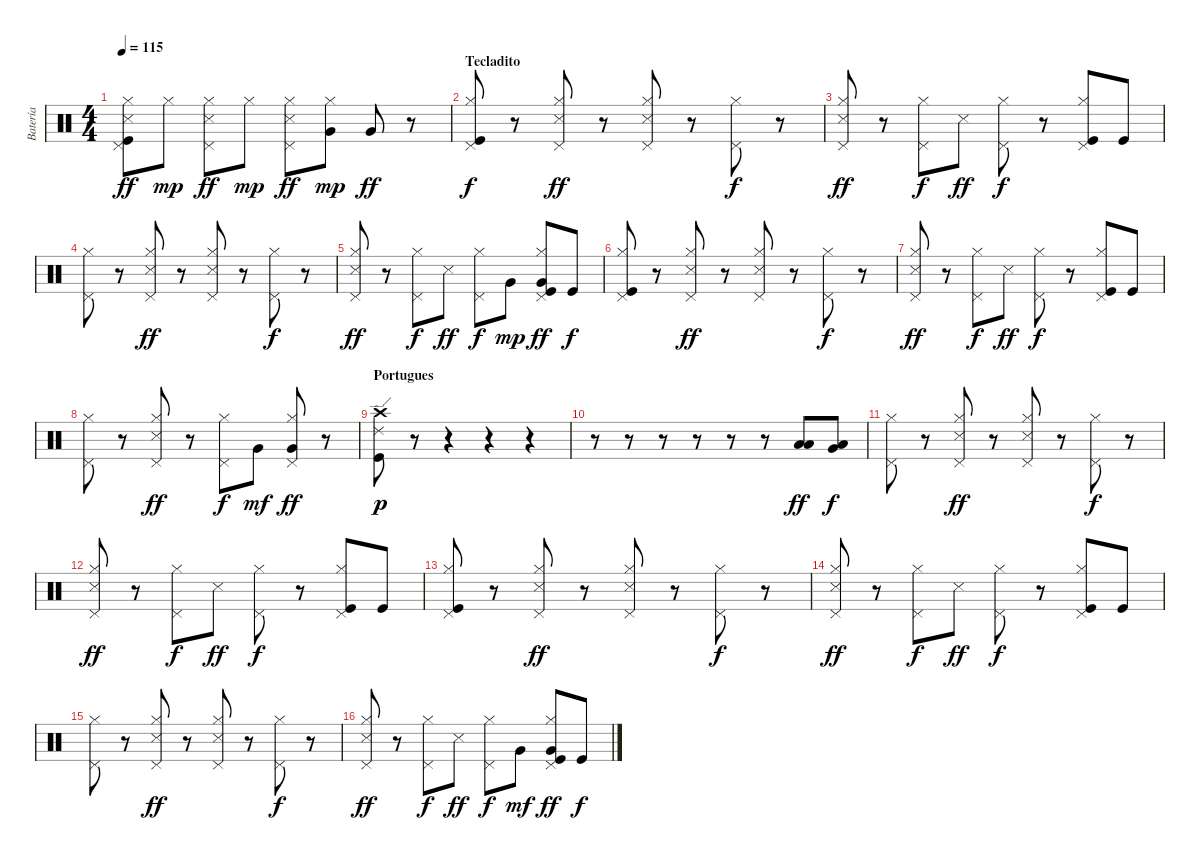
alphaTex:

\track ("Batería" "Batería") {instrument percussion}
\staff {score}
\articulation defaults
\ts (4 4)
\tempo 115
\clef neutral
\ks c
("Pedal Hi-Hat (hit)" "Hi-Hat (closed)" "Snare (side stick) 3" "Kick (hit)").8{dy ff} "Hi-Hat (closed)".8{dy mp} ("Pedal Hi-Hat (hit)" "Hi-Hat (closed)" "Snare (side stick) 3").8{dy ff} "Hi-Hat (closed)".8{dy mp} ("Pedal Hi-Hat (hit)" "Hi-Hat (closed)" "Snare (side stick) 3").8{dy ff} ("Hi-Hat (closed)" "Very Low Tom (hit)").8{dy mp} "Very Low Tom (hit)".8{dy ff} r.8 |
\section ("" "Tecladito")
("Hi-Hat (closed)" "Pedal Hi-Hat (hit)" "Kick (hit)").8{dy f} r.8 ("Pedal Hi-Hat (hit)" "Hi-Hat (closed)" "Snare (side stick) 3").8{dy ff} r.8 ("Pedal Hi-Hat (hit)" "Hi-Hat (closed)" "Snare (side stick) 3").8 r.8 ("Pedal Hi-Hat (hit)" "Hi-Hat (closed)").8{dy f} r.8 |
("Pedal Hi-Hat (hit)" "Hi-Hat (closed)" "Snare (side stick) 3").8{dy ff} r.8 ("Pedal Hi-Hat (hit)" "Hi-Hat (closed)").8{dy f} "Snare (side stick) 3".8{dy ff} ("Pedal Hi-Hat (hit)" "Hi-Hat (closed)").8{dy f} r.8 ("Pedal Hi-Hat (hit)" "Hi-Hat (closed)" "Kick (hit)").8 "Kick (hit)".8 |
("Pedal Hi-Hat (hit)" "Hi-Hat (closed)").8 r.8 ("Pedal Hi-Hat (hit)" "Hi-Hat (closed)" "Snare (side stick) 3").8{dy ff} r.8 ("Pedal Hi-Hat (hit)" "Hi-Hat (closed)" "Snare (side stick) 3").8 r.8 ("Pedal Hi-Hat (hit)" "Hi-Hat (closed)").8{dy f} r.8 |
("Pedal Hi-Hat (hit)" "Hi-Hat (closed)" "Snare (side stick) 3").8{dy ff} r.8 ("Pedal Hi-Hat (hit)" "Hi-Hat (closed)").8{dy f} "Snare (side stick) 3".8{dy ff} ("Pedal Hi-Hat (hit)" "Hi-Hat (closed)").8{dy f} "Very Low Tom (hit)".8{dy mp} ("Pedal Hi-Hat (hit)" "Hi-Hat (closed)" "Very Low Tom (hit)" "Kick (hit)").8{dy ff} "Kick (hit)".8{dy f} |
("Pedal Hi-Hat (hit)" "Hi-Hat (closed)" "Kick (hit)").8 r.8 ("Pedal Hi-Hat (hit)" "Hi-Hat (closed)" "Snare (side stick) 3").8{dy ff} r.8 ("Pedal Hi-Hat (hit)" "Hi-Hat (closed)" "Snare (side stick) 3").8 r.8 ("Pedal Hi-Hat (hit)" "Hi-Hat (closed)").8{dy f} r.8 |
("Pedal Hi-Hat (hit)" "Hi-Hat (closed)" "Snare (side stick) 3").8{dy ff} r.8 ("Pedal Hi-Hat (hit)" "Hi-Hat (closed)").8{dy f} "Snare (side stick) 3".8{dy ff} ("Pedal Hi-Hat (hit)" "Hi-Hat (closed)").8{dy f} r.8 ("Pedal Hi-Hat (hit)" "Hi-Hat (closed)" "Kick (hit)").8 "Kick (hit)".8 |
("Pedal Hi-Hat (hit)" "Hi-Hat (closed)").8 r.8 ("Pedal Hi-Hat (hit)" "Hi-Hat (closed)" "Snare (side stick) 3").8{dy ff} r.8 ("Pedal Hi-Hat (hit)" "Hi-Hat (closed)").8{dy f} "Very Low Tom (hit)".8{dy mf} ("Pedal Hi-Hat (hit)" "Hi-Hat (closed)" "Very Low Tom (hit)").8{dy ff} r.8 |
\section ("" "Portugues")
("Ride (edge) 2" "Crash high (hit)" "Kick (hit)").8{dy p} r.8 r.4 r.4 r.4 |
r.8 r.8 r.8 r.8 r.8 r.8 ("Low Tom (hit)" "Low Floor Tom (hit)").8{dy ff} ("Very Low Tom (hit)" "Low Floor Tom (hit)").8{dy f} |
("Pedal Hi-Hat (hit)" "Hi-Hat (closed)").8 r.8 ("Pedal Hi-Hat (hit)" "Hi-Hat (closed)" "Snare (side stick) 3").8{dy ff} r.8 ("Pedal Hi-Hat (hit)" "Hi-Hat (closed)" "Snare (side stick) 3").8 r.8 ("Pedal Hi-Hat (hit)" "Hi-Hat (closed)").8{dy f} r.8 |
("Pedal Hi-Hat (hit)" "Hi-Hat (closed)" "Snare (side stick) 3").8{dy ff} r.8 ("Pedal Hi-Hat (hit)" "Hi-Hat (closed)").8{dy f} "Snare (side stick) 3".8{dy ff} ("Pedal Hi-Hat (hit)" "Hi-Hat (closed)").8{dy f} r.8 ("Pedal Hi-Hat (hit)" "Hi-Hat (closed)" "Kick (hit)").8 "Kick (hit)".8 |
("Pedal Hi-Hat (hit)" "Hi-Hat (closed)" "Kick (hit)").8 r.8 ("Pedal Hi-Hat (hit)" "Hi-Hat (closed)" "Snare (side stick) 3").8{dy ff} r.8 ("Pedal Hi-Hat (hit)" "Hi-Hat (closed)" "Snare (side stick) 3").8 r.8 ("Pedal Hi-Hat (hit)" "Hi-Hat (closed)").8{dy f} r.8 |
("Pedal Hi-Hat (hit)" "Hi-Hat (closed)" "Snare (side stick) 3").8{dy ff} r.8 ("Pedal Hi-Hat (hit)" "Hi-Hat (closed)").8{dy f} "Snare (side stick) 3".8{dy ff} ("Pedal Hi-Hat (hit)" "Hi-Hat (closed)").8{dy f} r.8 ("Pedal Hi-Hat (hit)" "Hi-Hat (closed)" "Kick (hit)").8 "Kick (hit)".8 |
("Pedal Hi-Hat (hit)" "Hi-Hat (closed)").8 r.8 ("Pedal Hi-Hat (hit)" "Hi-Hat (closed)" "Snare (side stick) 3").8{dy ff} r.8 ("Pedal Hi-Hat (hit)" "Hi-Hat (closed)" "Snare (side stick) 3").8 r.8 ("Pedal Hi-Hat (hit)" "Hi-Hat (closed)").8{dy f} r.8 |
("Pedal Hi-Hat (hit)" "Hi-Hat (closed)" "Snare (side stick) 3").8{dy ff} r.8 ("Pedal Hi-Hat (hit)" "Hi-Hat (closed)").8{dy f} "Snare (side stick) 3".8{dy ff} ("Pedal Hi-Hat (hit)" "Hi-Hat (closed)").8{dy f} "Very Low Tom (hit)".8{dy mf} ("Pedal Hi-Hat (hit)" "Hi-Hat (closed)" "Very Low Tom (hit)" "Kick (hit)").8{dy ff} "Kick (hit)".8{dy f}
